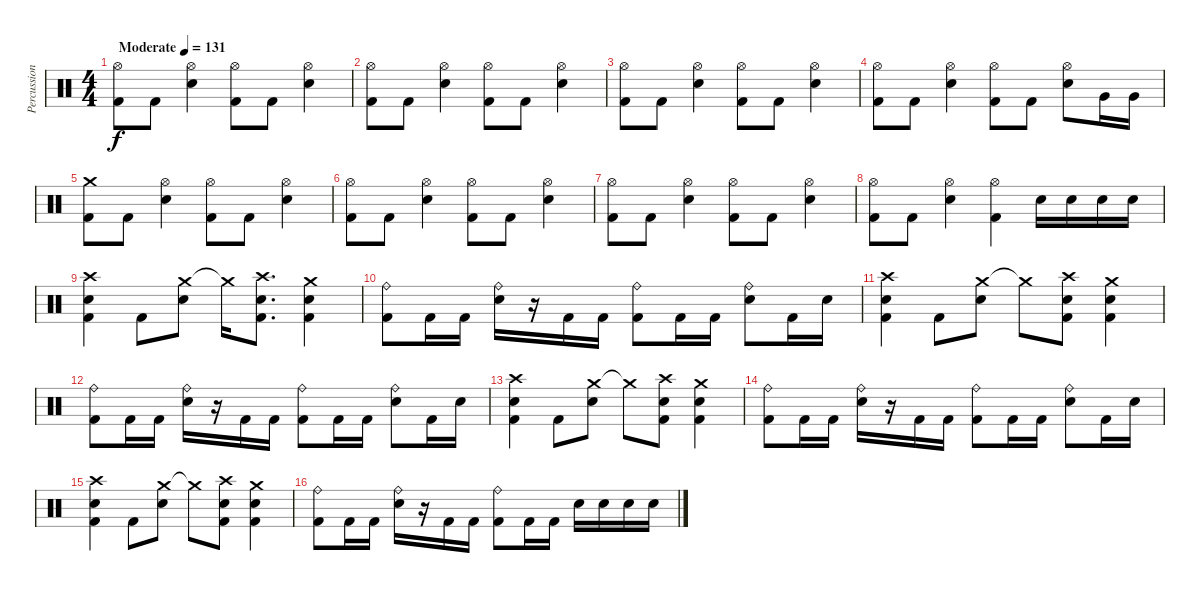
\track ("Percussion" "Percussion") {instrument percussion}
\staff {score}
\articulation defaults
\ts (4 4)
\tempo (131 "Moderate")
\clef neutral
\ks c
("Hi-Hat (open)" "Kick (hit) 2").8{dy f} "Kick (hit) 2".8 ("Hi-Hat (open)" "Electric Snare (hit)").4 ("Hi-Hat (open)" "Kick (hit) 2").8 "Kick (hit) 2".8 ("Hi-Hat (open)" "Electric Snare (hit)").4 |
("Hi-Hat (open)" "Kick (hit) 2").8 "Kick (hit) 2".8 ("Hi-Hat (open)" "Electric Snare (hit)").4 ("Hi-Hat (open)" "Kick (hit) 2").8 "Kick (hit) 2".8 ("Hi-Hat (open)" "Electric Snare (hit)").4 |
("Hi-Hat (open)" "Kick (hit) 2").8 "Kick (hit) 2".8 ("Hi-Hat (open)" "Electric Snare (hit)").4 ("Hi-Hat (open)" "Kick (hit) 2").8 "Kick (hit) 2".8 ("Hi-Hat (open)" "Electric Snare (hit)").4 |
("Hi-Hat (open)" "Kick (hit) 2").8 "Kick (hit) 2".8 ("Hi-Hat (open)" "Electric Snare (hit)").4 ("Hi-Hat (open)" "Kick (hit) 2").8 "Kick (hit) 2".8 ("Hi-Hat (open)" "Electric Snare (hit)").8 "Very Low Tom (hit)".16 "Very Low Tom (hit)".16 |
("Crash medium (hit)" "Kick (hit) 2").8 "Kick (hit) 2".8 ("Hi-Hat (open)" "Electric Snare (hit)").4 ("Hi-Hat (open)" "Kick (hit) 2").8 "Kick (hit) 2".8 ("Hi-Hat (open)" "Electric Snare (hit)").4 |
("Hi-Hat (open)" "Kick (hit) 2").8 "Kick (hit) 2".8 ("Hi-Hat (open)" "Electric Snare (hit)").4 ("Hi-Hat (open)" "Kick (hit) 2").8 "Kick (hit) 2".8 ("Hi-Hat (open)" "Electric Snare (hit)").4 |
("Hi-Hat (open)" "Kick (hit) 2").8 "Kick (hit) 2".8 ("Hi-Hat (open)" "Electric Snare (hit)").4 ("Hi-Hat (open)" "Kick (hit) 2").8 "Kick (hit) 2".8 ("Hi-Hat (open)" "Electric Snare (hit)").4 |
("Hi-Hat (open)" "Kick (hit) 2").8 "Kick (hit) 2".8 ("Hi-Hat (open)" "Electric Snare (hit)").4 ("Hi-Hat (open)" "Kick (hit) 2").4 "Electric Snare (hit)".16 "Electric Snare (hit)".16 "Electric Snare (hit)".16 "Electric Snare (hit)".16 |
("Crash high (hit)" "Electric Snare (hit)" "Kick (hit) 2").4 "Kick (hit) 2".8 ("Crash medium (hit)" "Electric Snare (hit)").8 "Crash medium (hit)"{t}.16 ("Crash high (hit)" "Electric Snare (hit)" "Kick (hit) 2").8{d} ("Crash medium (hit)" "Electric Snare (hit)" "Kick (hit) 2").4 |
("Ride (bell)" "Kick (hit) 2").8 "Kick (hit) 2".16 "Kick (hit) 2".16 ("Ride (bell)" "Electric Snare (hit)").16 r.16 "Kick (hit) 2".16 "Kick (hit) 2".16 ("Ride (bell)" "Kick (hit) 2").8 "Kick (hit) 2".16 "Kick (hit) 2".16 ("Ride (bell)" "Electric Snare (hit)").8 "Kick (hit) 2".16 "Electric Snare (hit)".16 |
("Crash high (hit)" "Electric Snare (hit)" "Kick (hit) 2").4 "Kick (hit) 2".8 ("Crash medium (hit)" "Electric Snare (hit)").8 "Crash medium (hit)"{t}.8 ("Crash high (hit)" "Electric Snare (hit)" "Kick (hit) 2").8 ("Crash medium (hit)" "Electric Snare (hit)" "Kick (hit) 2").4 |
("Ride (bell)" "Kick (hit) 2").8 "Kick (hit) 2".16 "Kick (hit) 2".16 ("Ride (bell)" "Electric Snare (hit)").16 r.16 "Kick (hit) 2".16 "Kick (hit) 2".16 ("Ride (bell)" "Kick (hit) 2").8 "Kick (hit) 2".16 "Kick (hit) 2".16 ("Ride (bell)" "Electric Snare (hit)").8 "Kick (hit) 2".16 "Electric Snare (hit)".16 |
("Crash high (hit)" "Electric Snare (hit)" "Kick (hit) 2").4 "Kick (hit) 2".8 ("Crash medium (hit)" "Electric Snare (hit)").8 "Crash medium (hit)"{t}.8 ("Crash high (hit)" "Electric Snare (hit)" "Kick (hit) 2").8 ("Crash medium (hit)" "Electric Snare (hit)" "Kick (hit) 2").4 |
("Ride (bell)" "Kick (hit) 2").8 "Kick (hit) 2".16 "Kick (hit) 2".16 ("Ride (bell)" "Electric Snare (hit)").16 r.16 "Kick (hit) 2".16 "Kick (hit) 2".16 ("Ride (bell)" "Kick (hit) 2").8 "Kick (hit) 2".16 "Kick (hit) 2".16 ("Ride (bell)" "Electric Snare (hit)").8 "Kick (hit) 2".16 "Electric Snare (hit)".16 |
("Crash high (hit)" "Electric Snare (hit)" "Kick (hit) 2").4 "Kick (hit) 2".8 ("Crash medium (hit)" "Electric Snare (hit)").8 "Crash medium (hit)"{t}.8 ("Crash high (hit)" "Electric Snare (hit)" "Kick (hit) 2").8 ("Crash medium (hit)" "Electric Snare (hit)" "Kick (hit) 2").4 |
("Ride (bell)" "Kick (hit) 2").8 "Kick (hit) 2".16 "Kick (hit) 2".16 ("Ride (bell)" "Electric Snare (hit)").16 r.16 "Kick (hit) 2".16 "Kick (hit) 2".16 ("Ride (bell)" "Kick (hit) 2").8 "Kick (hit) 2".16 "Kick (hit) 2".16 "Electric Snare (hit)".16 "Electric Snare (hit)".16 "Electric Snare (hit)".16 "Electric Snare (hit)".16
